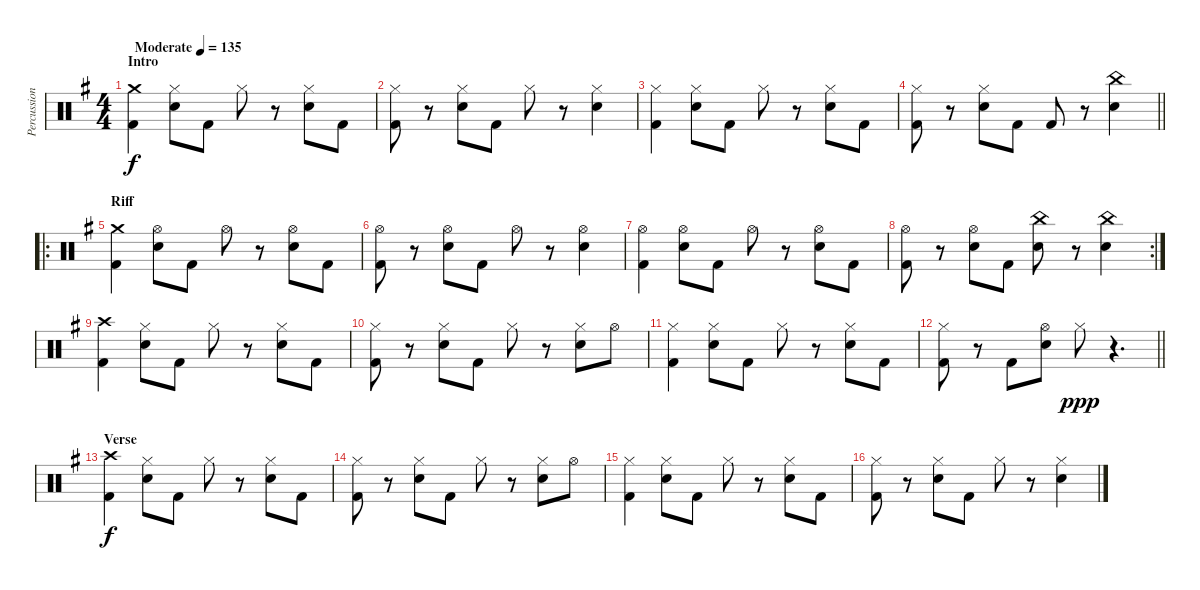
\track ("Percussion" "Percussion") {instrument percussion}
\staff {score}
\articulation defaults
\ts (4 4)
\section ("" "Intro")
\tempo (135 "Moderate")
\clef neutral
\ks g
("Crash medium (hit)" "Kick (hit) 2").4{dy f} ("Hi-Hat (closed)" "Electric Snare (hit)").8 "Kick (hit) 2".8 "Hi-Hat (closed)".8 r.8 ("Hi-Hat (closed)" "Electric Snare (hit)").8 "Kick (hit) 2".8 |
("Hi-Hat (closed)" "Kick (hit) 2").8 r.8 ("Hi-Hat (closed)" "Electric Snare (hit)").8 "Kick (hit) 2".8 "Hi-Hat (closed)".8 r.8 ("Hi-Hat (closed)" "Electric Snare (hit)").4 |
("Hi-Hat (closed)" "Kick (hit) 2").4 ("Hi-Hat (closed)" "Electric Snare (hit)").8 "Kick (hit) 2".8 "Hi-Hat (closed)".8 r.8 ("Hi-Hat (closed)" "Electric Snare (hit)").8 "Kick (hit) 2".8 |
\barLineRight lightlight
("Hi-Hat (closed)" "Kick (hit) 2").8 r.8 ("Hi-Hat (closed)" "Electric Snare (hit)").8 "Kick (hit) 2".8 "Kick (hit) 2".8 r.8 ("China (hit)" "Electric Snare (hit)").4 |
\ro
\section ("" "Riff")
("Crash medium (hit)" "Kick (hit) 2").4 ("Hi-Hat (open)" "Electric Snare (hit)").8 "Kick (hit) 2".8 "Hi-Hat (open)".8 r.8 ("Hi-Hat (open)" "Electric Snare (hit)").8 "Kick (hit) 2".8 |
("Hi-Hat (open)" "Kick (hit) 2").8 r.8 ("Hi-Hat (open)" "Electric Snare (hit)").8 "Kick (hit) 2".8 "Hi-Hat (open)".8 r.8 ("Hi-Hat (open)" "Electric Snare (hit)").4 |
("Hi-Hat (open)" "Kick (hit) 2").4 ("Hi-Hat (open)" "Electric Snare (hit)").8 "Kick (hit) 2".8 "Hi-Hat (open)".8 r.8 ("Hi-Hat (open)" "Electric Snare (hit)").8 "Kick (hit) 2".8 |
\rc 2
("Hi-Hat (open)" "Kick (hit) 2").8 r.8 ("Hi-Hat (open)" "Electric Snare (hit)").8 "Kick (hit) 2".8 ("China (hit)" "Electric Snare (hit)").8 r.8 ("China (hit)" "Electric Snare (hit)").4 |
("Crash high (hit)" "Kick (hit) 2").4 ("Hi-Hat (closed)" "Electric Snare (hit)").8 "Kick (hit) 2".8 "Hi-Hat (closed)".8 r.8 ("Hi-Hat (closed)" "Electric Snare (hit)").8 "Kick (hit) 2".8 |
("Hi-Hat (closed)" "Kick (hit) 2").8 r.8 ("Hi-Hat (closed)" "Electric Snare (hit)").8 "Kick (hit) 2".8 "Hi-Hat (closed)".8 r.8 ("Hi-Hat (closed)" "Electric Snare (hit)").8 "Hi-Hat (open)".8 |
("Hi-Hat (closed)" "Kick (hit) 2").4 ("Hi-Hat (closed)" "Electric Snare (hit)").8 "Kick (hit) 2".8 "Hi-Hat (closed)".8 r.8 ("Hi-Hat (closed)" "Electric Snare (hit)").8 "Kick (hit) 2".8 |
\barLineRight lightlight
("Hi-Hat (closed)" "Kick (hit) 2").8 r.8 "Kick (hit) 2".8 ("Hi-Hat (open)" "Electric Snare (hit)").8 "Hi-Hat (closed)".8{dy ppp} r.4{d} |
\section ("" "Verse")
("Crash high (hit)" "Kick (hit) 2").4{dy f} ("Hi-Hat (closed)" "Electric Snare (hit)").8 "Kick (hit) 2".8 "Hi-Hat (closed)".8 r.8 ("Hi-Hat (closed)" "Electric Snare (hit)").8 "Kick (hit) 2".8 |
("Hi-Hat (closed)" "Kick (hit) 2").8 r.8 ("Hi-Hat (closed)" "Electric Snare (hit)").8 "Kick (hit) 2".8 "Hi-Hat (closed)".8 r.8 ("Hi-Hat (closed)" "Electric Snare (hit)").8 "Hi-Hat (open)".8 |
("Hi-Hat (closed)" "Kick (hit) 2").4 ("Hi-Hat (closed)" "Electric Snare (hit)").8 "Kick (hit) 2".8 "Hi-Hat (closed)".8 r.8 ("Hi-Hat (closed)" "Electric Snare (hit)").8 "Kick (hit) 2".8 |
("Hi-Hat (closed)" "Kick (hit) 2").8 r.8 ("Hi-Hat (closed)" "Electric Snare (hit)").8 "Kick (hit) 2".8 "Hi-Hat (closed)".8 r.8 ("Hi-Hat (closed)" "Electric Snare (hit)").4
